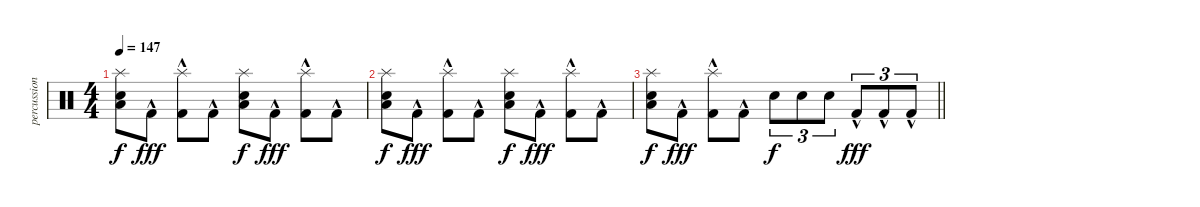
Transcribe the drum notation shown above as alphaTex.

\track ("percussion" "percussion") {instrument percussion}
\staff {score}
\articulation defaults
\ts (4 4)
\tempo 147
\clef neutral
\ks c
("Electric Snare (hit)" "Low Floor Tom (hit)" "Splash (hit)").8{dy f} "Kick (hit) 2"{hac}.8{dy fff} ("Kick (hit) 2"{hac} "Splash (hit)").8 "Kick (hit) 2"{hac}.8 ("Electric Snare (hit)" "Low Floor Tom (hit)" "Splash (hit)").8{dy f} "Kick (hit) 2"{hac}.8{dy fff} ("Kick (hit) 2"{hac} "Splash (hit)").8 "Kick (hit) 2"{hac}.8 |
("Electric Snare (hit)" "Low Floor Tom (hit)" "Splash (hit)").8{dy f} "Kick (hit) 2"{hac}.8{dy fff} ("Kick (hit) 2"{hac} "Splash (hit)").8 "Kick (hit) 2"{hac}.8 ("Electric Snare (hit)" "Low Floor Tom (hit)" "Splash (hit)").8{dy f} "Kick (hit) 2"{hac}.8{dy fff} ("Kick (hit) 2"{hac} "Splash (hit)").8 "Kick (hit) 2"{hac}.8 |
\barLineRight lightlight
("Electric Snare (hit)" "Low Floor Tom (hit)" "Splash (hit)").8{dy f} "Kick (hit) 2"{hac}.8{dy fff} ("Kick (hit) 2"{hac} "Splash (hit)").8 "Kick (hit) 2"{hac}.8 "Electric Snare (hit)".8{tu (3 2) dy f} "Electric Snare (hit)".8{tu (3 2)} "Electric Snare (hit)".8{tu (3 2)} "Kick (hit) 2"{hac}.8{tu (3 2) dy fff} "Kick (hit) 2"{hac}.8{tu (3 2)} "Kick (hit) 2"{hac}.8{tu (3 2)}
